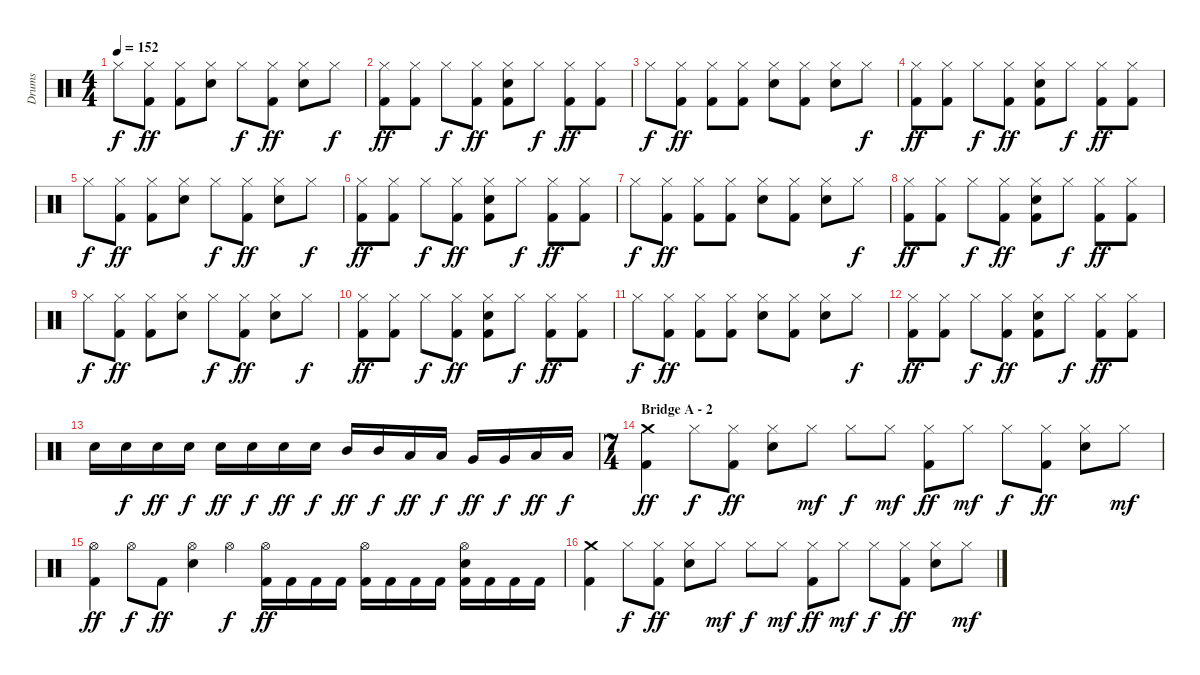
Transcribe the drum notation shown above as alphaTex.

\track ("Drums" "Drums") {instrument percussion}
\staff {score}
\articulation defaults
\ts (4 4)
\tempo 152
\clef neutral
\ks c "Hi-Hat (closed)".8{dy f}
("Hi-Hat (closed)" "Kick (hit) 2").8{dy ff} ("Hi-Hat (closed)" "Kick (hit) 2").8 ("Hi-Hat (closed)" "Electric Snare (hit)").8 "Hi-Hat (closed)".8{dy f} ("Hi-Hat (closed)" "Kick (hit) 2").8{dy ff} ("Hi-Hat (closed)" "Electric Snare (hit)").8 "Hi-Hat (closed)".8{dy f} |
("Hi-Hat (closed)" "Kick (hit) 2").8{dy ff} ("Hi-Hat (closed)" "Kick (hit) 2").8 "Hi-Hat (closed)".8{dy f} ("Hi-Hat (closed)" "Kick (hit) 2").8{dy ff} ("Hi-Hat (closed)" "Electric Snare (hit)" "Kick (hit) 2").8 "Hi-Hat (closed)".8{dy f} ("Hi-Hat (closed)" "Kick (hit) 2").8{dy ff} ("Hi-Hat (closed)" "Kick (hit) 2").8 |
"Hi-Hat (closed)".8{dy f} ("Hi-Hat (closed)" "Kick (hit) 2").8{dy ff} ("Hi-Hat (closed)" "Kick (hit) 2").8 ("Hi-Hat (closed)" "Kick (hit) 2").8 ("Hi-Hat (closed)" "Electric Snare (hit)").8 ("Hi-Hat (closed)" "Kick (hit) 2").8 ("Hi-Hat (closed)" "Electric Snare (hit)").8 "Hi-Hat (closed)".8{dy f} |
("Hi-Hat (closed)" "Kick (hit) 2").8{dy ff} ("Hi-Hat (closed)" "Kick (hit) 2").8 "Hi-Hat (closed)".8{dy f} ("Hi-Hat (closed)" "Kick (hit) 2").8{dy ff} ("Hi-Hat (closed)" "Electric Snare (hit)" "Kick (hit) 2").8 "Hi-Hat (closed)".8{dy f} ("Hi-Hat (closed)" "Kick (hit) 2").8{dy ff} ("Hi-Hat (closed)" "Kick (hit) 2").8 |
"Hi-Hat (closed)".8{dy f} ("Hi-Hat (closed)" "Kick (hit) 2").8{dy ff} ("Hi-Hat (closed)" "Kick (hit) 2").8 ("Hi-Hat (closed)" "Electric Snare (hit)").8 "Hi-Hat (closed)".8{dy f} ("Hi-Hat (closed)" "Kick (hit) 2").8{dy ff} ("Hi-Hat (closed)" "Electric Snare (hit)").8 "Hi-Hat (closed)".8{dy f} |
("Hi-Hat (closed)" "Kick (hit) 2").8{dy ff} ("Hi-Hat (closed)" "Kick (hit) 2").8 "Hi-Hat (closed)".8{dy f} ("Hi-Hat (closed)" "Kick (hit) 2").8{dy ff} ("Hi-Hat (closed)" "Electric Snare (hit)" "Kick (hit) 2").8 "Hi-Hat (closed)".8{dy f} ("Hi-Hat (closed)" "Kick (hit) 2").8{dy ff} ("Hi-Hat (closed)" "Kick (hit) 2").8 |
"Hi-Hat (closed)".8{dy f} ("Hi-Hat (closed)" "Kick (hit) 2").8{dy ff} ("Hi-Hat (closed)" "Kick (hit) 2").8 ("Hi-Hat (closed)" "Kick (hit) 2").8 ("Hi-Hat (closed)" "Electric Snare (hit)").8 ("Hi-Hat (closed)" "Kick (hit) 2").8 ("Hi-Hat (closed)" "Electric Snare (hit)").8 "Hi-Hat (closed)".8{dy f} |
("Hi-Hat (closed)" "Kick (hit) 2").8{dy ff} ("Hi-Hat (closed)" "Kick (hit) 2").8 "Hi-Hat (closed)".8{dy f} ("Hi-Hat (closed)" "Kick (hit) 2").8{dy ff} ("Hi-Hat (closed)" "Electric Snare (hit)" "Kick (hit) 2").8 "Hi-Hat (closed)".8{dy f} ("Hi-Hat (closed)" "Kick (hit) 2").8{dy ff} ("Hi-Hat (closed)" "Kick (hit) 2").8 |
"Hi-Hat (closed)".8{dy f} ("Hi-Hat (closed)" "Kick (hit) 2").8{dy ff} ("Hi-Hat (closed)" "Kick (hit) 2").8 ("Hi-Hat (closed)" "Electric Snare (hit)").8 "Hi-Hat (closed)".8{dy f} ("Hi-Hat (closed)" "Kick (hit) 2").8{dy ff} ("Hi-Hat (closed)" "Electric Snare (hit)").8 "Hi-Hat (closed)".8{dy f} |
("Hi-Hat (closed)" "Kick (hit) 2").8{dy ff} ("Hi-Hat (closed)" "Kick (hit) 2").8 "Hi-Hat (closed)".8{dy f} ("Hi-Hat (closed)" "Kick (hit) 2").8{dy ff} ("Hi-Hat (closed)" "Electric Snare (hit)" "Kick (hit) 2").8 "Hi-Hat (closed)".8{dy f} ("Hi-Hat (closed)" "Kick (hit) 2").8{dy ff} ("Hi-Hat (closed)" "Kick (hit) 2").8 |
"Hi-Hat (closed)".8{dy f} ("Hi-Hat (closed)" "Kick (hit) 2").8{dy ff} ("Hi-Hat (closed)" "Kick (hit) 2").8 ("Hi-Hat (closed)" "Kick (hit) 2").8 ("Hi-Hat (closed)" "Electric Snare (hit)").8 ("Hi-Hat (closed)" "Kick (hit) 2").8 ("Hi-Hat (closed)" "Electric Snare (hit)").8 "Hi-Hat (closed)".8{dy f} |
("Hi-Hat (closed)" "Kick (hit) 2").8{dy ff} ("Hi-Hat (closed)" "Kick (hit) 2").8 "Hi-Hat (closed)".8{dy f} ("Hi-Hat (closed)" "Kick (hit) 2").8{dy ff} ("Hi-Hat (closed)" "Electric Snare (hit)" "Kick (hit) 2").8 "Hi-Hat (closed)".8{dy f} ("Hi-Hat (closed)" "Kick (hit) 2").8{dy ff} ("Hi-Hat (closed)" "Kick (hit) 2").8 |
"Electric Snare (hit)".16 "Electric Snare (hit)".16{dy f} "Electric Snare (hit)".16{dy ff} "Electric Snare (hit)".16{dy f} "Electric Snare (hit)".16{dy ff} "Electric Snare (hit)".16{dy f} "Electric Snare (hit)".16{dy ff} "Electric Snare (hit)".16{dy f} "Mid Tom (hit)".16{dy ff} "Mid Tom (hit)".16{dy f} "Low Tom (hit)".16{dy ff} "Low Tom (hit)".16{dy f} "Very Low Tom (hit)".16{dy ff} "Very Low Tom (hit)".16{dy f} "Low Floor Tom (hit)".16{dy ff} "Low Floor Tom (hit)".16{dy f} |
\ts (7 4)
\section ("" "Bridge A - 2")
("Crash medium (hit)" "Kick (hit) 2").4{dy ff} "Hi-Hat (closed)".8{dy f} ("Hi-Hat (closed)" "Kick (hit) 2").8{dy ff} ("Hi-Hat (closed)" "Electric Snare (hit)").8 "Hi-Hat (closed)".8{dy mf} "Hi-Hat (closed)".8{dy f} "Hi-Hat (closed)".8{dy mf} ("Hi-Hat (closed)" "Kick (hit) 2").8{dy ff} "Hi-Hat (closed)".8{dy mf} "Hi-Hat (closed)".8{dy f} ("Hi-Hat (closed)" "Kick (hit) 2").8{dy ff} ("Hi-Hat (closed)" "Electric Snare (hit)").8 "Hi-Hat (closed)".8{dy mf} |
("Hi-Hat (open)" "Kick (hit) 2").4{dy ff} "Hi-Hat (open)".8{dy f} "Kick (hit) 2".8{dy ff} ("Hi-Hat (open)" "Electric Snare (hit)").4 "Hi-Hat (open)".4{dy f} ("Hi-Hat (open)" "Kick (hit) 2").16{dy ff} "Kick (hit) 2".16 "Kick (hit) 2".16 "Kick (hit) 2".16 ("Hi-Hat (open)" "Kick (hit) 2").16 "Kick (hit) 2".16 "Kick (hit) 2".16 "Kick (hit) 2".16 ("Hi-Hat (open)" "Electric Snare (hit)" "Kick (hit) 2").16 "Kick (hit) 2".16 "Kick (hit) 2".16 "Kick (hit) 2".16 |
("Crash medium (hit)" "Kick (hit) 2").4 "Hi-Hat (closed)".8{dy f} ("Hi-Hat (closed)" "Kick (hit) 2").8{dy ff} ("Hi-Hat (closed)" "Electric Snare (hit)").8 "Hi-Hat (closed)".8{dy mf} "Hi-Hat (closed)".8{dy f} "Hi-Hat (closed)".8{dy mf} ("Hi-Hat (closed)" "Kick (hit) 2").8{dy ff} "Hi-Hat (closed)".8{dy mf} "Hi-Hat (closed)".8{dy f} ("Hi-Hat (closed)" "Kick (hit) 2").8{dy ff} ("Hi-Hat (closed)" "Electric Snare (hit)").8 "Hi-Hat (closed)".8{dy mf}
